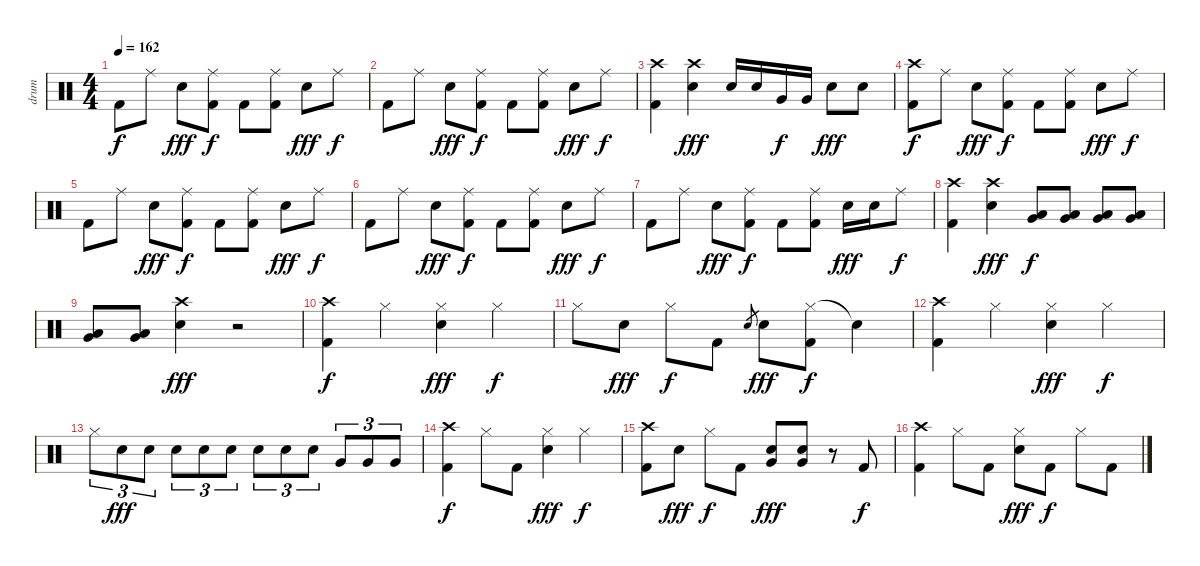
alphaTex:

\track ("drum" "drum") {instrument percussion}
\staff {score}
\articulation defaults
\ts (4 4)
\tempo 162
\clef neutral
\ks c "Kick (hit) 2".8{dy f} "Ride (middle)".8 "Electric Snare (hit)".8{dy fff}
("Ride (middle)" "Kick (hit) 2").8{dy f} "Kick (hit) 2".8 ("Ride (middle)" "Kick (hit) 2").8 "Electric Snare (hit)".8{dy fff} "Ride (middle)".8{dy f} |
"Kick (hit) 2".8 "Ride (middle)".8 "Electric Snare (hit)".8{dy fff} ("Ride (middle)" "Kick (hit) 2").8{dy f} "Kick (hit) 2".8 ("Ride (middle)" "Kick (hit) 2").8 "Electric Snare (hit)".8{dy fff} "Ride (middle)".8{dy f} |
("Crash high (hit)" "Kick (hit) 2").4 ("Crash high (hit)" "Electric Snare (hit)").4{dy fff} "Electric Snare (hit)".16 "Electric Snare (hit)".16 "Very Low Tom (hit)".16{dy f} "Very Low Tom (hit)".16 "Electric Snare (hit)".8{dy fff} "Electric Snare (hit)".8 |
("Crash high (hit)" "Kick (hit) 2").8{dy f} "Ride (middle)".8 "Electric Snare (hit)".8{dy fff} ("Ride (middle)" "Kick (hit) 2").8{dy f} "Kick (hit) 2".8 ("Ride (middle)" "Kick (hit) 2").8 "Electric Snare (hit)".8{dy fff} "Ride (middle)".8{dy f} |
"Kick (hit) 2".8 "Ride (middle)".8 "Electric Snare (hit)".8{dy fff} ("Ride (middle)" "Kick (hit) 2").8{dy f} "Kick (hit) 2".8 ("Ride (middle)" "Kick (hit) 2").8 "Electric Snare (hit)".8{dy fff} "Ride (middle)".8{dy f} |
"Kick (hit) 2".8 "Ride (middle)".8 "Electric Snare (hit)".8{dy fff} ("Ride (middle)" "Kick (hit) 2").8{dy f} "Kick (hit) 2".8 ("Ride (middle)" "Kick (hit) 2").8 "Electric Snare (hit)".8{dy fff} "Ride (middle)".8{dy f} |
"Kick (hit) 2".8 "Ride (middle)".8 "Electric Snare (hit)".8{dy fff} ("Ride (middle)" "Kick (hit) 2").8{dy f} "Kick (hit) 2".8 ("Ride (middle)" "Kick (hit) 2").8 "Electric Snare (hit)".16{dy fff} "Electric Snare (hit)".16 "Ride (middle)".8{dy f} |
("Crash high (hit)" "Kick (hit) 2").4 ("Crash high (hit)" "Electric Snare (hit)").4{dy fff} ("Low Tom (hit)" "Very Low Tom (hit)").8{dy f} ("Low Tom (hit)" "Very Low Tom (hit)").8 ("Low Tom (hit)" "Very Low Tom (hit)").8 ("Low Tom (hit)" "Very Low Tom (hit)").8 |
("Low Tom (hit)" "Very Low Tom (hit)").8 ("Low Tom (hit)" "Very Low Tom (hit)").8 ("Crash high (hit)" "Electric Snare (hit)").4{dy fff} r.2 |
("Crash high (hit)" "Kick (hit) 2").4{dy f} "Hi-Hat (closed)".4 ("Hi-Hat (closed)" "Electric Snare (hit)").4{dy fff} "Hi-Hat (closed)".4{dy f} |
"Hi-Hat (closed)".8 "Electric Snare (hit)".8{dy fff} "Hi-Hat (closed)".8{dy f} "Kick (hit) 2".8 "Electric Snare (hit)".8{gr} "Electric Snare (hit)".8{dy fff} ("Hi-Hat (closed)" "Kick (hit) 2").8{dy f} "Snare (hit)"{t}.4 |
("Crash high (hit)" "Kick (hit) 2").4 "Hi-Hat (closed)".4 ("Hi-Hat (closed)" "Electric Snare (hit)").4{dy fff} "Hi-Hat (closed)".4{dy f} |
"Hi-Hat (closed)".8{tu (3 2)} "Electric Snare (hit)".8{tu (3 2) dy fff} "Electric Snare (hit)".8{tu (3 2)} "Electric Snare (hit)".8{tu (3 2)} "Electric Snare (hit)".8{tu (3 2)} "Electric Snare (hit)".8{tu (3 2)} "Electric Snare (hit)".8{tu (3 2)} "Electric Snare (hit)".8{tu (3 2)} "Electric Snare (hit)".8{tu (3 2)} "Very Low Tom (hit)".8{tu (3 2)} "Very Low Tom (hit)".8{tu (3 2)} "Very Low Tom (hit)".8{tu (3 2)} |
("Crash high (hit)" "Kick (hit) 2").4{dy f} "Hi-Hat (closed)".8 "Kick (hit) 2".8 ("Hi-Hat (closed)" "Electric Snare (hit)").4{dy fff} "Hi-Hat (closed)".4{dy f} |
("Crash high (hit)" "Kick (hit) 2").8 "Electric Snare (hit)".8{dy fff} "Hi-Hat (closed)".8{dy f} "Kick (hit) 2".8 ("Electric Snare (hit)" "Very Low Tom (hit)").8{dy fff} ("Electric Snare (hit)" "Very Low Tom (hit)").8 r.8 "Kick (hit) 2".8{dy f} |
("Crash high (hit)" "Kick (hit) 2").4 "Hi-Hat (closed)".8 "Kick (hit) 2".8 ("Hi-Hat (closed)" "Electric Snare (hit)").8{dy fff} "Kick (hit) 2".8{dy f} "Hi-Hat (closed)".8 "Kick (hit) 2".8
